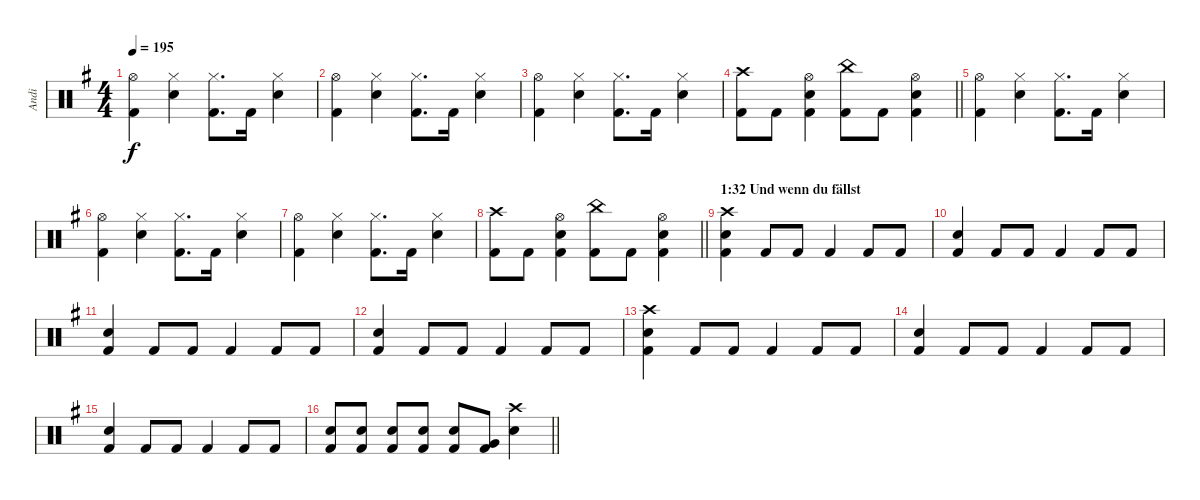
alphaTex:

\track ("Andi" "Andi") {instrument percussion}
\staff {score}
\articulation defaults
\ts (4 4)
\tempo 195
\clef neutral
\ks g
("Hi-Hat (open)" "Kick (hit) 2").4{dy f} ("Hi-Hat (closed)" "Snare (hit) 2").4 ("Hi-Hat (closed)" "Kick (hit) 2").8{d} "Kick (hit) 2".16 ("Hi-Hat (closed)" "Snare (hit) 2").4 |
("Hi-Hat (open)" "Kick (hit) 2").4 ("Hi-Hat (closed)" "Snare (hit) 2").4 ("Hi-Hat (closed)" "Kick (hit) 2").8{d} "Kick (hit) 2".16 ("Hi-Hat (closed)" "Snare (hit) 2").4 |
("Hi-Hat (open)" "Kick (hit) 2").4 ("Hi-Hat (closed)" "Snare (hit) 2").4 ("Hi-Hat (closed)" "Kick (hit) 2").8{d} "Kick (hit) 2".16 ("Hi-Hat (closed)" "Snare (hit) 2").4 |
\barLineRight lightlight
("Crash high (hit)" "Kick (hit) 2").8 "Kick (hit) 2".8 ("Hi-Hat (open)" "Kick (hit) 2" "Snare (hit) 2").4 ("China (hit)" "Kick (hit) 2").8 "Kick (hit) 2".8 ("Hi-Hat (open)" "Kick (hit) 2" "Snare (hit) 2").4 |
("Hi-Hat (open)" "Kick (hit) 2").4 ("Hi-Hat (closed)" "Snare (hit) 2").4 ("Hi-Hat (closed)" "Kick (hit) 2").8{d} "Kick (hit) 2".16 ("Hi-Hat (closed)" "Snare (hit) 2").4 |
("Hi-Hat (open)" "Kick (hit) 2").4 ("Hi-Hat (closed)" "Snare (hit) 2").4 ("Hi-Hat (closed)" "Kick (hit) 2").8{d} "Kick (hit) 2".16 ("Hi-Hat (closed)" "Snare (hit) 2").4 |
("Hi-Hat (open)" "Kick (hit) 2").4 ("Hi-Hat (closed)" "Snare (hit) 2").4 ("Hi-Hat (closed)" "Kick (hit) 2").8{d} "Kick (hit) 2".16 ("Hi-Hat (closed)" "Snare (hit) 2").4 |
\barLineRight lightlight
("Crash high (hit)" "Kick (hit) 2").8 "Kick (hit) 2".8 ("Hi-Hat (open)" "Kick (hit) 2" "Snare (hit) 2").4 ("China (hit)" "Kick (hit) 2").8 "Kick (hit) 2".8 ("Hi-Hat (open)" "Kick (hit) 2" "Snare (hit) 2").4 |
\section ("" "1:32 Und wenn du fällst")
("Crash high (hit)" "Snare (hit) 2" "Kick (hit) 2").4 "Kick (hit) 2".8 "Kick (hit) 2".8 "Kick (hit) 2".4 "Kick (hit) 2".8 "Kick (hit) 2".8 |
("Snare (hit) 2" "Kick (hit) 2").4 "Kick (hit) 2".8 "Kick (hit) 2".8 "Kick (hit) 2".4 "Kick (hit) 2".8 "Kick (hit) 2".8 |
("Snare (hit) 2" "Kick (hit) 2").4 "Kick (hit) 2".8 "Kick (hit) 2".8 "Kick (hit) 2".4 "Kick (hit) 2".8 "Kick (hit) 2".8 |
("Snare (hit) 2" "Kick (hit) 2").4 "Kick (hit) 2".8 "Kick (hit) 2".8 "Kick (hit) 2".4 "Kick (hit) 2".8 "Kick (hit) 2".8 |
("Crash high (hit)" "Snare (hit) 2" "Kick (hit) 2").4 "Kick (hit) 2".8 "Kick (hit) 2".8 "Kick (hit) 2".4 "Kick (hit) 2".8 "Kick (hit) 2".8 |
("Snare (hit) 2" "Kick (hit) 2").4 "Kick (hit) 2".8 "Kick (hit) 2".8 "Kick (hit) 2".4 "Kick (hit) 2".8 "Kick (hit) 2".8 |
("Snare (hit) 2" "Kick (hit) 2").4 "Kick (hit) 2".8 "Kick (hit) 2".8 "Kick (hit) 2".4 "Kick (hit) 2".8 "Kick (hit) 2".8 |
\barLineRight lightlight
("Snare (hit) 2" "Kick (hit) 2").8 ("Snare (hit) 2" "Kick (hit) 2").8 ("Snare (hit) 2" "Kick (hit) 2").8 ("Snare (hit) 2" "Kick (hit) 2").8 ("Snare (hit) 2" "Kick (hit) 2").8 ("Very Low Tom (hit)" "Kick (hit) 2").8 ("Crash high (hit)" "Snare (hit) 2").4
